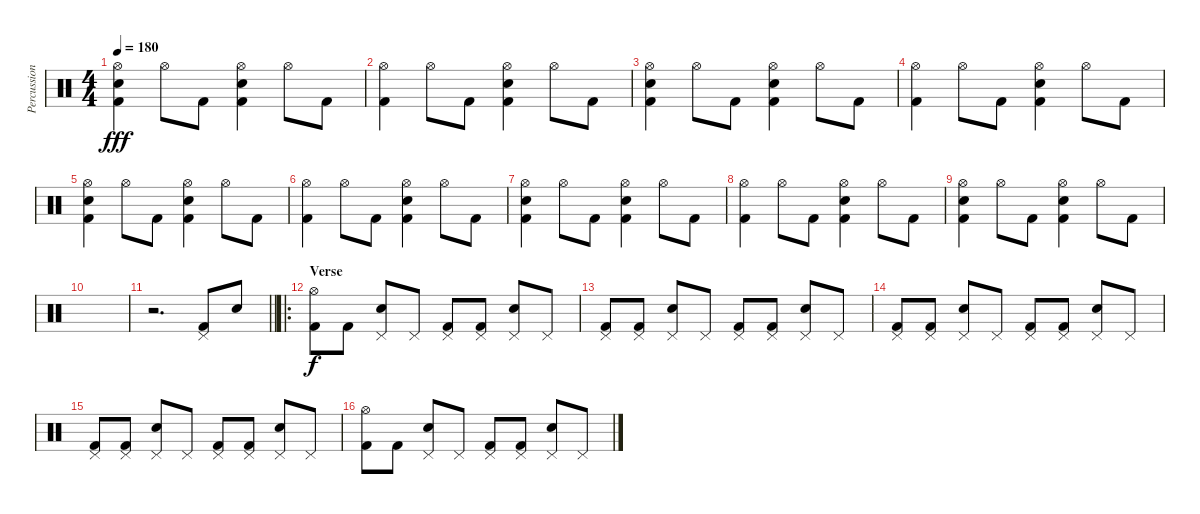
\track ("Percussion" "Percussion") {instrument percussion}
\staff {score}
\articulation defaults
\ts (4 4)
\tempo 180
\clef neutral
\ks c
("Hi-Hat (open)" "Electric Snare (hit)" "Kick (hit) 2").4{dy fff} "Hi-Hat (open)".8 "Kick (hit) 2".8 ("Hi-Hat (open)" "Electric Snare (hit)" "Kick (hit) 2").4 "Hi-Hat (open)".8 "Kick (hit) 2".8 |
("Hi-Hat (open)" "Kick (hit) 2").4 "Hi-Hat (open)".8 "Kick (hit) 2".8 ("Hi-Hat (open)" "Electric Snare (hit)" "Kick (hit) 2").4 "Hi-Hat (open)".8 "Kick (hit) 2".8 |
("Hi-Hat (open)" "Electric Snare (hit)" "Kick (hit) 2").4 "Hi-Hat (open)".8 "Kick (hit) 2".8 ("Hi-Hat (open)" "Electric Snare (hit)" "Kick (hit) 2").4 "Hi-Hat (open)".8 "Kick (hit) 2".8 |
("Hi-Hat (open)" "Kick (hit) 2").4 "Hi-Hat (open)".8 "Kick (hit) 2".8 ("Hi-Hat (open)" "Electric Snare (hit)" "Kick (hit) 2").4 "Hi-Hat (open)".8 "Kick (hit) 2".8 |
("Hi-Hat (open)" "Electric Snare (hit)" "Kick (hit) 2").4 "Hi-Hat (open)".8 "Kick (hit) 2".8 ("Hi-Hat (open)" "Electric Snare (hit)" "Kick (hit) 2").4 "Hi-Hat (open)".8 "Kick (hit) 2".8 |
("Hi-Hat (open)" "Kick (hit) 2").4 "Hi-Hat (open)".8 "Kick (hit) 2".8 ("Hi-Hat (open)" "Electric Snare (hit)" "Kick (hit) 2").4 "Hi-Hat (open)".8 "Kick (hit) 2".8 |
("Hi-Hat (open)" "Electric Snare (hit)" "Kick (hit) 2").4 "Hi-Hat (open)".8 "Kick (hit) 2".8 ("Hi-Hat (open)" "Electric Snare (hit)" "Kick (hit) 2").4 "Hi-Hat (open)".8 "Kick (hit) 2".8 |
("Hi-Hat (open)" "Kick (hit) 2").4 "Hi-Hat (open)".8 "Kick (hit) 2".8 ("Hi-Hat (open)" "Electric Snare (hit)" "Kick (hit) 2").4 "Hi-Hat (open)".8 "Kick (hit) 2".8 |
("Hi-Hat (open)" "Electric Snare (hit)" "Kick (hit) 2").4 "Hi-Hat (open)".8 "Kick (hit) 2".8 ("Hi-Hat (open)" "Electric Snare (hit)" "Kick (hit) 2").4 "Hi-Hat (open)".8 "Kick (hit) 2".8 |
|
\barLineRight lightlight
r.2{d} ("Pedal Hi-Hat (hit)" "Kick (hit) 2").8 "Electric Snare (hit)".8 |
\ro
\section ("" "Verse")
("Hi-Hat (open)" "Kick (hit) 2").8{dy f} "Kick (hit) 2".8 ("Pedal Hi-Hat (hit)" "Electric Snare (hit)").8 "Pedal Hi-Hat (hit)".8 ("Pedal Hi-Hat (hit)" "Kick (hit) 2").8 ("Pedal Hi-Hat (hit)" "Kick (hit) 2").8 ("Pedal Hi-Hat (hit)" "Electric Snare (hit)").8 "Pedal Hi-Hat (hit)".8 |
("Pedal Hi-Hat (hit)" "Kick (hit) 2").8 ("Pedal Hi-Hat (hit)" "Kick (hit) 2").8 ("Pedal Hi-Hat (hit)" "Electric Snare (hit)").8 "Pedal Hi-Hat (hit)".8 ("Pedal Hi-Hat (hit)" "Kick (hit) 2").8 ("Pedal Hi-Hat (hit)" "Kick (hit) 2").8 ("Pedal Hi-Hat (hit)" "Electric Snare (hit)").8 "Pedal Hi-Hat (hit)".8 |
("Pedal Hi-Hat (hit)" "Kick (hit) 2").8 ("Pedal Hi-Hat (hit)" "Kick (hit) 2").8 ("Pedal Hi-Hat (hit)" "Electric Snare (hit)").8 "Pedal Hi-Hat (hit)".8 ("Pedal Hi-Hat (hit)" "Kick (hit) 2").8 ("Pedal Hi-Hat (hit)" "Kick (hit) 2").8 ("Pedal Hi-Hat (hit)" "Electric Snare (hit)").8 "Pedal Hi-Hat (hit)".8 |
("Pedal Hi-Hat (hit)" "Kick (hit) 2").8 ("Pedal Hi-Hat (hit)" "Kick (hit) 2").8 ("Pedal Hi-Hat (hit)" "Electric Snare (hit)").8 "Pedal Hi-Hat (hit)".8 ("Pedal Hi-Hat (hit)" "Kick (hit) 2").8 ("Pedal Hi-Hat (hit)" "Kick (hit) 2").8 ("Pedal Hi-Hat (hit)" "Electric Snare (hit)").8 "Pedal Hi-Hat (hit)".8 |
("Hi-Hat (open)" "Kick (hit) 2").8 "Kick (hit) 2".8 ("Pedal Hi-Hat (hit)" "Electric Snare (hit)").8 "Pedal Hi-Hat (hit)".8 ("Pedal Hi-Hat (hit)" "Kick (hit) 2").8 ("Pedal Hi-Hat (hit)" "Kick (hit) 2").8 ("Pedal Hi-Hat (hit)" "Electric Snare (hit)").8 "Pedal Hi-Hat (hit)".8
